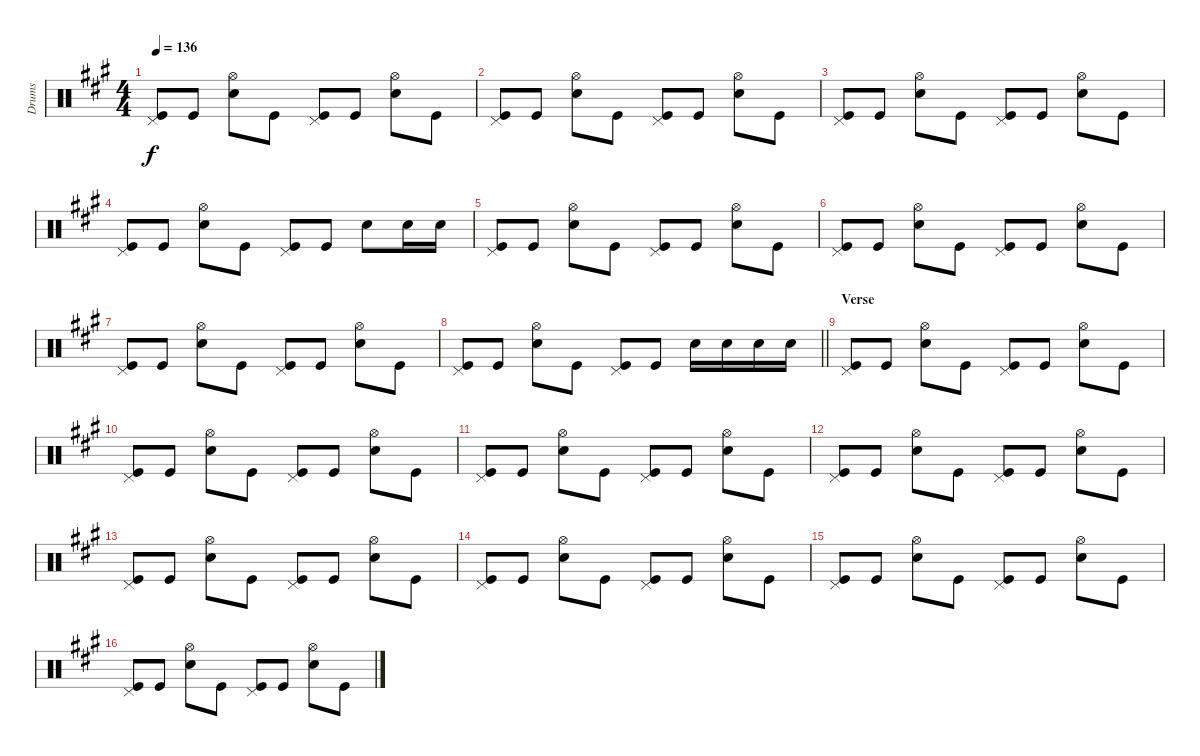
\track ("Drums" "Drums") {instrument percussion}
\staff {score}
\articulation defaults
\ts (4 4)
\tempo 136
\clef neutral
\ks a
("Pedal Hi-Hat (hit)" "Kick (hit)").8{dy f} "Kick (hit)".8 ("Hi-Hat (open)" "Snare (hit) 2").8 "Kick (hit)".8 ("Pedal Hi-Hat (hit)" "Kick (hit)").8 "Kick (hit)".8 ("Hi-Hat (open)" "Snare (hit) 2").8 "Kick (hit)".8 |
("Pedal Hi-Hat (hit)" "Kick (hit)").8 "Kick (hit)".8 ("Hi-Hat (open)" "Snare (hit) 2").8 "Kick (hit)".8 ("Pedal Hi-Hat (hit)" "Kick (hit)").8 "Kick (hit)".8 ("Hi-Hat (open)" "Snare (hit) 2").8 "Kick (hit)".8 |
("Pedal Hi-Hat (hit)" "Kick (hit)").8 "Kick (hit)".8 ("Hi-Hat (open)" "Snare (hit) 2").8 "Kick (hit)".8 ("Pedal Hi-Hat (hit)" "Kick (hit)").8 "Kick (hit)".8 ("Hi-Hat (open)" "Snare (hit) 2").8 "Kick (hit)".8 |
("Pedal Hi-Hat (hit)" "Kick (hit)").8 "Kick (hit)".8 ("Hi-Hat (open)" "Snare (hit) 2").8 "Kick (hit)".8 ("Pedal Hi-Hat (hit)" "Kick (hit)").8 "Kick (hit)".8 "Snare (hit) 2".8 "Snare (hit) 2".16 "Snare (hit) 2".16 |
("Pedal Hi-Hat (hit)" "Kick (hit)").8 "Kick (hit)".8 ("Hi-Hat (open)" "Snare (hit) 2").8 "Kick (hit)".8 ("Pedal Hi-Hat (hit)" "Kick (hit)").8 "Kick (hit)".8 ("Hi-Hat (open)" "Snare (hit) 2").8 "Kick (hit)".8 |
("Pedal Hi-Hat (hit)" "Kick (hit)").8 "Kick (hit)".8 ("Hi-Hat (open)" "Snare (hit) 2").8 "Kick (hit)".8 ("Pedal Hi-Hat (hit)" "Kick (hit)").8 "Kick (hit)".8 ("Hi-Hat (open)" "Snare (hit) 2").8 "Kick (hit)".8 |
("Pedal Hi-Hat (hit)" "Kick (hit)").8 "Kick (hit)".8 ("Hi-Hat (open)" "Snare (hit) 2").8 "Kick (hit)".8 ("Pedal Hi-Hat (hit)" "Kick (hit)").8 "Kick (hit)".8 ("Hi-Hat (open)" "Snare (hit) 2").8 "Kick (hit)".8 |
\barLineRight lightlight
("Pedal Hi-Hat (hit)" "Kick (hit)").8 "Kick (hit)".8 ("Hi-Hat (open)" "Snare (hit) 2").8 "Kick (hit)".8 ("Pedal Hi-Hat (hit)" "Kick (hit)").8 "Kick (hit)".8 "Snare (hit) 2".16 "Snare (hit) 2".16 "Snare (hit) 2".16 "Snare (hit) 2".16 |
\section ("" "Verse")
("Pedal Hi-Hat (hit)" "Kick (hit)").8 "Kick (hit)".8 ("Hi-Hat (open)" "Snare (hit) 2").8 "Kick (hit)".8 ("Pedal Hi-Hat (hit)" "Kick (hit)").8 "Kick (hit)".8 ("Hi-Hat (open)" "Snare (hit) 2").8 "Kick (hit)".8 |
("Pedal Hi-Hat (hit)" "Kick (hit)").8 "Kick (hit)".8 ("Hi-Hat (open)" "Snare (hit) 2").8 "Kick (hit)".8 ("Pedal Hi-Hat (hit)" "Kick (hit)").8 "Kick (hit)".8 ("Hi-Hat (open)" "Snare (hit) 2").8 "Kick (hit)".8 |
("Pedal Hi-Hat (hit)" "Kick (hit)").8 "Kick (hit)".8 ("Hi-Hat (open)" "Snare (hit) 2").8 "Kick (hit)".8 ("Pedal Hi-Hat (hit)" "Kick (hit)").8 "Kick (hit)".8 ("Hi-Hat (open)" "Snare (hit) 2").8 "Kick (hit)".8 |
("Pedal Hi-Hat (hit)" "Kick (hit)").8 "Kick (hit)".8 ("Hi-Hat (open)" "Snare (hit) 2").8 "Kick (hit)".8 ("Pedal Hi-Hat (hit)" "Kick (hit)").8 "Kick (hit)".8 ("Hi-Hat (open)" "Snare (hit) 2").8 "Kick (hit)".8 |
("Pedal Hi-Hat (hit)" "Kick (hit)").8 "Kick (hit)".8 ("Hi-Hat (open)" "Snare (hit) 2").8 "Kick (hit)".8 ("Pedal Hi-Hat (hit)" "Kick (hit)").8 "Kick (hit)".8 ("Hi-Hat (open)" "Snare (hit) 2").8 "Kick (hit)".8 |
("Pedal Hi-Hat (hit)" "Kick (hit)").8 "Kick (hit)".8 ("Hi-Hat (open)" "Snare (hit) 2").8 "Kick (hit)".8 ("Pedal Hi-Hat (hit)" "Kick (hit)").8 "Kick (hit)".8 ("Hi-Hat (open)" "Snare (hit) 2").8 "Kick (hit)".8 |
("Pedal Hi-Hat (hit)" "Kick (hit)").8 "Kick (hit)".8 ("Hi-Hat (open)" "Snare (hit) 2").8 "Kick (hit)".8 ("Pedal Hi-Hat (hit)" "Kick (hit)").8 "Kick (hit)".8 ("Hi-Hat (open)" "Snare (hit) 2").8 "Kick (hit)".8 |
("Pedal Hi-Hat (hit)" "Kick (hit)").8 "Kick (hit)".8 ("Hi-Hat (open)" "Snare (hit) 2").8 "Kick (hit)".8 ("Pedal Hi-Hat (hit)" "Kick (hit)").8 "Kick (hit)".8 ("Hi-Hat (open)" "Snare (hit) 2").8 "Kick (hit)".8
